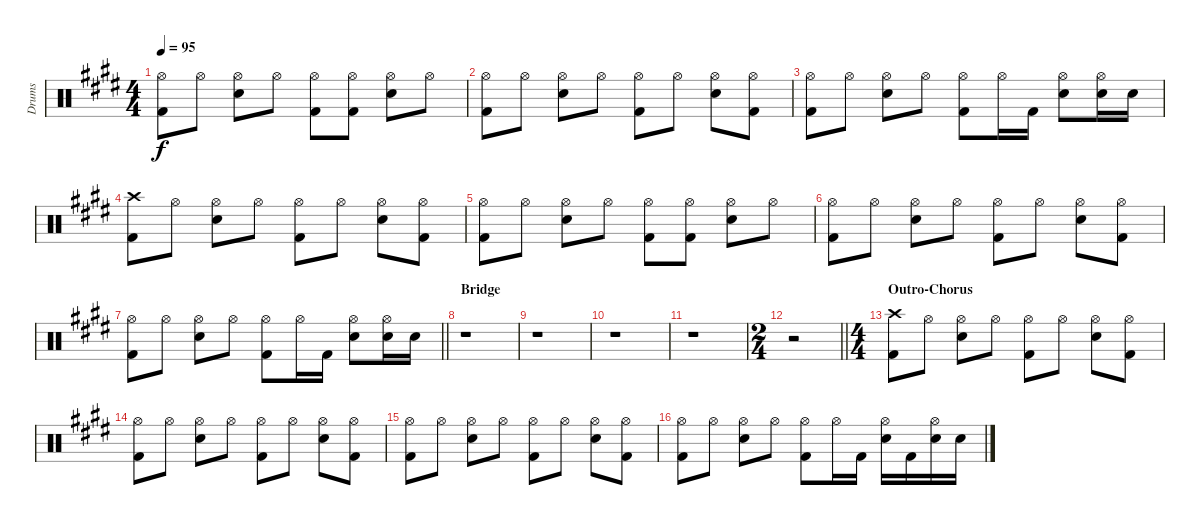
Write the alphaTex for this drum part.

\track ("Drums" "Drums") {instrument percussion}
\staff {score}
\articulation defaults
\ts (4 4)
\tempo 95
\clef neutral
\ks e
("Hi-Hat (open)" "Kick (hit) 2").8{dy f} "Hi-Hat (open)".8 ("Hi-Hat (open)" "Snare (hit) 2").8 "Hi-Hat (open)".8 ("Hi-Hat (open)" "Kick (hit) 2").8 ("Hi-Hat (open)" "Kick (hit) 2").8 ("Hi-Hat (open)" "Snare (hit) 2").8 "Hi-Hat (open)".8 |
("Hi-Hat (open)" "Kick (hit) 2").8 "Hi-Hat (open)".8 ("Hi-Hat (open)" "Snare (hit) 2").8 "Hi-Hat (open)".8 ("Hi-Hat (open)" "Kick (hit) 2").8 "Hi-Hat (open)".8 ("Hi-Hat (open)" "Snare (hit) 2").8 ("Hi-Hat (open)" "Kick (hit) 2").8 |
("Hi-Hat (open)" "Kick (hit) 2").8 "Hi-Hat (open)".8 ("Hi-Hat (open)" "Snare (hit) 2").8 "Hi-Hat (open)".8 ("Hi-Hat (open)" "Kick (hit) 2").8 "Hi-Hat (open)".16 "Kick (hit) 2".16 ("Hi-Hat (open)" "Snare (hit) 2").8 ("Hi-Hat (open)" "Snare (hit) 2").16 "Snare (hit) 2".16 |
("Crash high (hit)" "Kick (hit) 2").8 "Hi-Hat (open)".8 ("Hi-Hat (open)" "Snare (hit) 2").8 "Hi-Hat (open)".8 ("Hi-Hat (open)" "Kick (hit) 2").8 "Hi-Hat (open)".8 ("Hi-Hat (open)" "Snare (hit) 2").8 ("Hi-Hat (open)" "Kick (hit) 2").8 |
("Hi-Hat (open)" "Kick (hit) 2").8 "Hi-Hat (open)".8 ("Hi-Hat (open)" "Snare (hit) 2").8 "Hi-Hat (open)".8 ("Hi-Hat (open)" "Kick (hit) 2").8 ("Hi-Hat (open)" "Kick (hit) 2").8 ("Hi-Hat (open)" "Snare (hit) 2").8 "Hi-Hat (open)".8 |
("Hi-Hat (open)" "Kick (hit) 2").8 "Hi-Hat (open)".8 ("Hi-Hat (open)" "Snare (hit) 2").8 "Hi-Hat (open)".8 ("Hi-Hat (open)" "Kick (hit) 2").8 "Hi-Hat (open)".8 ("Hi-Hat (open)" "Snare (hit) 2").8 ("Hi-Hat (open)" "Kick (hit) 2").8 |
\barLineRight lightlight
("Hi-Hat (open)" "Kick (hit) 2").8 "Hi-Hat (open)".8 ("Hi-Hat (open)" "Snare (hit) 2").8 "Hi-Hat (open)".8 ("Hi-Hat (open)" "Kick (hit) 2").8 "Hi-Hat (open)".16 "Kick (hit) 2".16 ("Hi-Hat (open)" "Snare (hit) 2").8 ("Hi-Hat (open)" "Snare (hit) 2").16 "Snare (hit) 2".16 |
\section ("" "Bridge")
r.1 |
r.1 |
r.1 |
r.1 |
\ts (2 4)
\barLineRight lightlight
r.2 |
\ts (4 4)
\section ("" "Outro-Chorus")
("Crash high (hit)" "Kick (hit) 2").8 "Hi-Hat (open)".8 ("Hi-Hat (open)" "Snare (hit) 2").8 "Hi-Hat (open)".8 ("Hi-Hat (open)" "Kick (hit) 2").8 "Hi-Hat (open)".8 ("Hi-Hat (open)" "Snare (hit) 2").8 ("Hi-Hat (open)" "Kick (hit) 2").8 |
("Hi-Hat (open)" "Kick (hit) 2").8 "Hi-Hat (open)".8 ("Hi-Hat (open)" "Snare (hit) 2").8 "Hi-Hat (open)".8 ("Hi-Hat (open)" "Kick (hit) 2").8 "Hi-Hat (open)".8 ("Hi-Hat (open)" "Snare (hit) 2").8 ("Hi-Hat (open)" "Kick (hit) 2").8 |
("Hi-Hat (open)" "Kick (hit) 2").8 "Hi-Hat (open)".8 ("Hi-Hat (open)" "Snare (hit) 2").8 "Hi-Hat (open)".8 ("Hi-Hat (open)" "Kick (hit) 2").8 "Hi-Hat (open)".8 ("Hi-Hat (open)" "Snare (hit) 2").8 ("Hi-Hat (open)" "Kick (hit) 2").8 |
("Hi-Hat (open)" "Kick (hit) 2").8 "Hi-Hat (open)".8 ("Hi-Hat (open)" "Snare (hit) 2").8 "Hi-Hat (open)".8 ("Hi-Hat (open)" "Kick (hit) 2").8 "Hi-Hat (open)".16 "Kick (hit) 2".16 ("Hi-Hat (open)" "Snare (hit) 2").16 "Kick (hit) 2".16 ("Hi-Hat (open)" "Snare (hit) 2").16 "Snare (hit) 2".16
